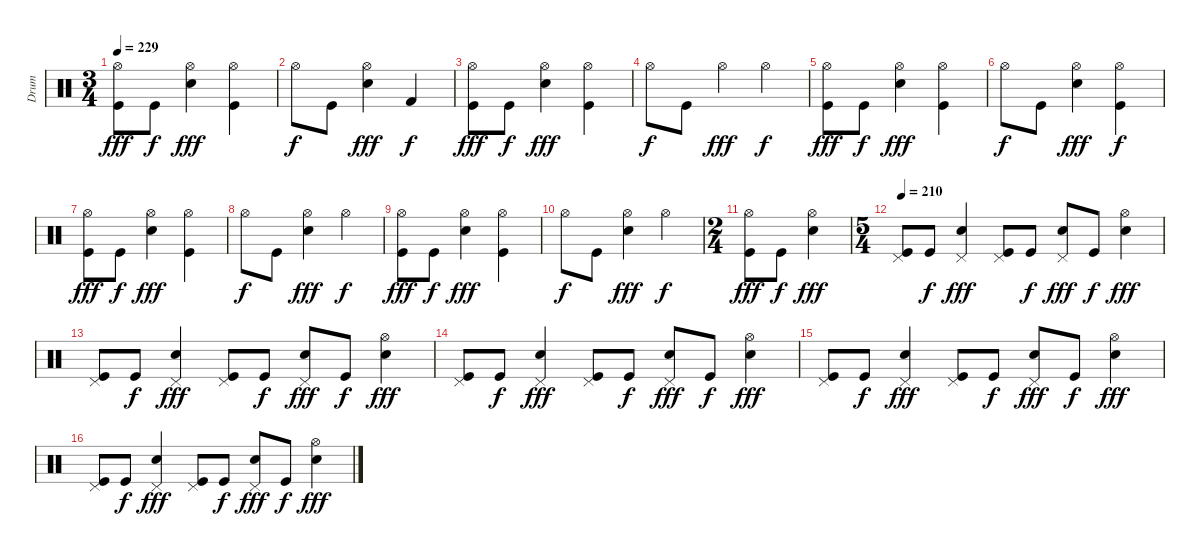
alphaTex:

\track ("Drum" "Drum") {instrument percussion}
\staff {score}
\articulation defaults
\ts (3 4)
\tempo 229
\clef neutral
\ks c
("Hi-Hat (open)" "Kick (hit)").8{dy fff} "Kick (hit)".8{dy f} ("Hi-Hat (open)" "Snare (hit) 2").4{dy fff} ("Hi-Hat (open)" "Kick (hit)").4 |
"Hi-Hat (open)".8{dy f} "Kick (hit)".8 ("Hi-Hat (open)" "Snare (hit) 2").4{dy fff} "Kick (hit) 2".4{dy f} |
("Hi-Hat (open)" "Kick (hit)").8{dy fff} "Kick (hit)".8{dy f} ("Hi-Hat (open)" "Snare (hit) 2").4{dy fff} ("Hi-Hat (open)" "Kick (hit)").4 |
"Hi-Hat (open)".8{dy f} "Kick (hit)".8 "Hi-Hat (open)".4{dy fff} "Hi-Hat (open)".4{dy f} |
("Hi-Hat (open)" "Kick (hit)").8{dy fff} "Kick (hit)".8{dy f} ("Hi-Hat (open)" "Snare (hit) 2").4{dy fff} ("Hi-Hat (open)" "Kick (hit)").4 |
"Hi-Hat (open)".8{dy f} "Kick (hit)".8 ("Hi-Hat (open)" "Snare (hit) 2").4{dy fff} ("Hi-Hat (open)" "Kick (hit)").4{dy f} |
("Hi-Hat (open)" "Kick (hit)").8{dy fff} "Kick (hit)".8{dy f} ("Hi-Hat (open)" "Snare (hit) 2").4{dy fff} ("Hi-Hat (open)" "Kick (hit)").4 |
"Hi-Hat (open)".8{dy f} "Kick (hit)".8 ("Hi-Hat (open)" "Snare (hit) 2").4{dy fff} "Hi-Hat (open)".4{dy f} |
("Hi-Hat (open)" "Kick (hit)").8{dy fff} "Kick (hit)".8{dy f} ("Hi-Hat (open)" "Snare (hit) 2").4{dy fff} ("Hi-Hat (open)" "Kick (hit)").4 |
"Hi-Hat (open)".8{dy f} "Kick (hit)".8 ("Hi-Hat (open)" "Snare (hit) 2").4{dy fff} "Hi-Hat (open)".4{dy f} |
\ts (2 4)
("Hi-Hat (open)" "Kick (hit)").8{dy fff} "Kick (hit)".8{dy f} ("Hi-Hat (open)" "Snare (hit) 2").4{dy fff} |
\ts (5 4)
\tempo 210
("Pedal Hi-Hat (hit)" "Kick (hit)").8 "Kick (hit)".8{dy f} ("Pedal Hi-Hat (hit)" "Snare (hit) 2").4{dy fff} ("Pedal Hi-Hat (hit)" "Kick (hit)").8 "Kick (hit)".8{dy f} ("Pedal Hi-Hat (hit)" "Snare (hit) 2").8{dy fff} "Kick (hit)".8{dy f} ("Hi-Hat (open)" "Snare (hit) 2").4{dy fff} |
("Pedal Hi-Hat (hit)" "Kick (hit)").8 "Kick (hit)".8{dy f} ("Pedal Hi-Hat (hit)" "Snare (hit) 2").4{dy fff} ("Pedal Hi-Hat (hit)" "Kick (hit)").8 "Kick (hit)".8{dy f} ("Pedal Hi-Hat (hit)" "Snare (hit) 2").8{dy fff} "Kick (hit)".8{dy f} ("Hi-Hat (open)" "Snare (hit) 2").4{dy fff} |
("Pedal Hi-Hat (hit)" "Kick (hit)").8 "Kick (hit)".8{dy f} ("Pedal Hi-Hat (hit)" "Snare (hit) 2").4{dy fff} ("Pedal Hi-Hat (hit)" "Kick (hit)").8 "Kick (hit)".8{dy f} ("Pedal Hi-Hat (hit)" "Snare (hit) 2").8{dy fff} "Kick (hit)".8{dy f} ("Hi-Hat (open)" "Snare (hit) 2").4{dy fff} |
("Pedal Hi-Hat (hit)" "Kick (hit)").8 "Kick (hit)".8{dy f} ("Pedal Hi-Hat (hit)" "Snare (hit) 2").4{dy fff} ("Pedal Hi-Hat (hit)" "Kick (hit)").8 "Kick (hit)".8{dy f} ("Pedal Hi-Hat (hit)" "Snare (hit) 2").8{dy fff} "Kick (hit)".8{dy f} ("Hi-Hat (open)" "Snare (hit) 2").4{dy fff} |
("Pedal Hi-Hat (hit)" "Kick (hit)").8 "Kick (hit)".8{dy f} ("Pedal Hi-Hat (hit)" "Snare (hit) 2").4{dy fff} ("Pedal Hi-Hat (hit)" "Kick (hit)").8 "Kick (hit)".8{dy f} ("Pedal Hi-Hat (hit)" "Snare (hit) 2").8{dy fff} "Kick (hit)".8{dy f} ("Hi-Hat (open)" "Snare (hit) 2").4{dy fff}
